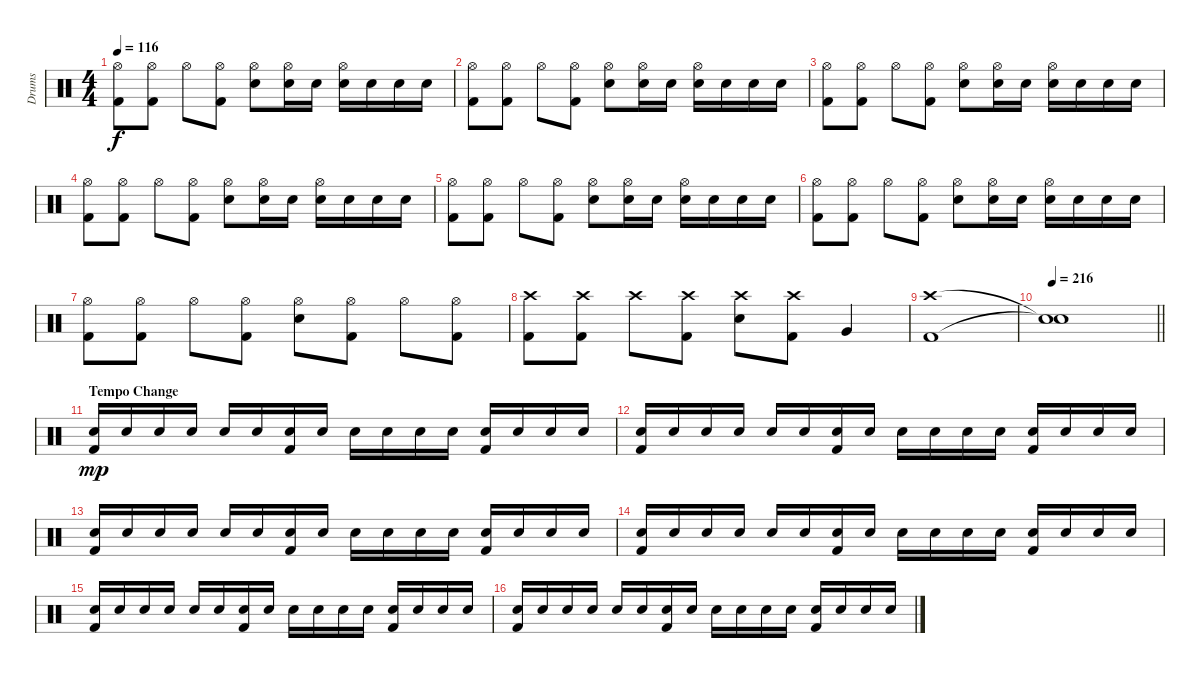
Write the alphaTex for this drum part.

\track ("Drums" "Drums") {instrument percussion}
\staff {score}
\articulation defaults
\ts (4 4)
\tempo 116
\clef neutral
\ks c
("Kick (hit) 2" "Hi-Hat (open)").8{dy f} ("Kick (hit) 2" "Hi-Hat (open)").8 "Hi-Hat (open)".8 ("Kick (hit) 2" "Hi-Hat (open)").8 ("Snare (hit) 2" "Hi-Hat (open)").8 ("Snare (hit) 2" "Hi-Hat (open)").16 "Snare (hit) 2".16 ("Snare (hit) 2" "Hi-Hat (open)").16 "Snare (hit) 2".16 "Snare (hit) 2".16 "Snare (hit) 2".16 |
("Kick (hit) 2" "Hi-Hat (open)").8 ("Kick (hit) 2" "Hi-Hat (open)").8 "Hi-Hat (open)".8 ("Kick (hit) 2" "Hi-Hat (open)").8 ("Snare (hit) 2" "Hi-Hat (open)").8 ("Snare (hit) 2" "Hi-Hat (open)").16 "Snare (hit) 2".16 ("Snare (hit) 2" "Hi-Hat (open)").16 "Snare (hit) 2".16 "Snare (hit) 2".16 "Snare (hit) 2".16 |
("Kick (hit) 2" "Hi-Hat (open)").8 ("Kick (hit) 2" "Hi-Hat (open)").8 "Hi-Hat (open)".8 ("Kick (hit) 2" "Hi-Hat (open)").8 ("Snare (hit) 2" "Hi-Hat (open)").8 ("Snare (hit) 2" "Hi-Hat (open)").16 "Snare (hit) 2".16 ("Snare (hit) 2" "Hi-Hat (open)").16 "Snare (hit) 2".16 "Snare (hit) 2".16 "Snare (hit) 2".16 |
("Kick (hit) 2" "Hi-Hat (open)").8 ("Kick (hit) 2" "Hi-Hat (open)").8 "Hi-Hat (open)".8 ("Kick (hit) 2" "Hi-Hat (open)").8 ("Snare (hit) 2" "Hi-Hat (open)").8 ("Snare (hit) 2" "Hi-Hat (open)").16 "Snare (hit) 2".16 ("Snare (hit) 2" "Hi-Hat (open)").16 "Snare (hit) 2".16 "Snare (hit) 2".16 "Snare (hit) 2".16 |
("Kick (hit) 2" "Hi-Hat (open)").8 ("Kick (hit) 2" "Hi-Hat (open)").8 "Hi-Hat (open)".8 ("Kick (hit) 2" "Hi-Hat (open)").8 ("Snare (hit) 2" "Hi-Hat (open)").8 ("Snare (hit) 2" "Hi-Hat (open)").16 "Snare (hit) 2".16 ("Snare (hit) 2" "Hi-Hat (open)").16 "Snare (hit) 2".16 "Snare (hit) 2".16 "Snare (hit) 2".16 |
("Kick (hit) 2" "Hi-Hat (open)").8 ("Kick (hit) 2" "Hi-Hat (open)").8 "Hi-Hat (open)".8 ("Kick (hit) 2" "Hi-Hat (open)").8 ("Snare (hit) 2" "Hi-Hat (open)").8 ("Snare (hit) 2" "Hi-Hat (open)").16 "Snare (hit) 2".16 ("Snare (hit) 2" "Hi-Hat (open)").16 "Snare (hit) 2".16 "Snare (hit) 2".16 "Snare (hit) 2".16 |
("Kick (hit) 2" "Hi-Hat (open)").8 ("Kick (hit) 2" "Hi-Hat (open)").8 "Hi-Hat (open)".8 ("Kick (hit) 2" "Hi-Hat (open)").8 ("Snare (hit) 2" "Hi-Hat (open)").8 ("Kick (hit) 2" "Hi-Hat (open)").8 "Hi-Hat (open)".8 ("Kick (hit) 2" "Hi-Hat (open)").8 |
("Kick (hit) 2" "Crash high (hit)").8 ("Kick (hit) 2" "Crash high (hit)").8 "Crash high (hit)".8 ("Kick (hit) 2" "Crash high (hit)").8 ("Electric Snare (hit)" "Crash high (hit)").8 ("Kick (hit) 2" "Crash high (hit)").8 "Very Low Tom (hit)".4 |
("Kick (hit) 2" "Crash high (hit)").1 |
\tempo 216
\barLineRight lightlight
("Snare (hit)"{t} "Snare (hit)"{t}).1 |
\section ("" "Tempo Change")
("Kick (hit) 2" "Snare (hit) 2").16{dy mp} "Snare (hit) 2".16 "Snare (hit) 2".16 "Snare (hit) 2".16 "Snare (hit) 2".16 "Snare (hit) 2".16 ("Kick (hit) 2" "Snare (hit) 2").16 "Snare (hit) 2".16 "Snare (hit) 2".16 "Snare (hit) 2".16 "Snare (hit) 2".16 "Snare (hit) 2".16 ("Kick (hit) 2" "Snare (hit) 2").16 "Snare (hit) 2".16 "Snare (hit) 2".16 "Snare (hit) 2".16 |
("Kick (hit) 2" "Snare (hit) 2").16 "Snare (hit) 2".16 "Snare (hit) 2".16 "Snare (hit) 2".16 "Snare (hit) 2".16 "Snare (hit) 2".16 ("Kick (hit) 2" "Snare (hit) 2").16 "Snare (hit) 2".16 "Snare (hit) 2".16 "Snare (hit) 2".16 "Snare (hit) 2".16 "Snare (hit) 2".16 ("Kick (hit) 2" "Snare (hit) 2").16 "Snare (hit) 2".16 "Snare (hit) 2".16 "Snare (hit) 2".16 |
("Kick (hit) 2" "Snare (hit) 2").16 "Snare (hit) 2".16 "Snare (hit) 2".16 "Snare (hit) 2".16 "Snare (hit) 2".16 "Snare (hit) 2".16 ("Kick (hit) 2" "Snare (hit) 2").16 "Snare (hit) 2".16 "Snare (hit) 2".16 "Snare (hit) 2".16 "Snare (hit) 2".16 "Snare (hit) 2".16 ("Kick (hit) 2" "Snare (hit) 2").16 "Snare (hit) 2".16 "Snare (hit) 2".16 "Snare (hit) 2".16 |
("Kick (hit) 2" "Snare (hit) 2").16 "Snare (hit) 2".16 "Snare (hit) 2".16 "Snare (hit) 2".16 "Snare (hit) 2".16 "Snare (hit) 2".16 ("Kick (hit) 2" "Snare (hit) 2").16 "Snare (hit) 2".16 "Snare (hit) 2".16 "Snare (hit) 2".16 "Snare (hit) 2".16 "Snare (hit) 2".16 ("Kick (hit) 2" "Snare (hit) 2").16 "Snare (hit) 2".16 "Snare (hit) 2".16 "Snare (hit) 2".16 |
("Kick (hit) 2" "Snare (hit) 2").16 "Snare (hit) 2".16 "Snare (hit) 2".16 "Snare (hit) 2".16 "Snare (hit) 2".16 "Snare (hit) 2".16 ("Kick (hit) 2" "Snare (hit) 2").16 "Snare (hit) 2".16 "Snare (hit) 2".16 "Snare (hit) 2".16 "Snare (hit) 2".16 "Snare (hit) 2".16 ("Kick (hit) 2" "Snare (hit) 2").16 "Snare (hit) 2".16 "Snare (hit) 2".16 "Snare (hit) 2".16 |
("Kick (hit) 2" "Snare (hit) 2").16 "Snare (hit) 2".16 "Snare (hit) 2".16 "Snare (hit) 2".16 "Snare (hit) 2".16 "Snare (hit) 2".16 ("Kick (hit) 2" "Snare (hit) 2").16 "Snare (hit) 2".16 "Snare (hit) 2".16 "Snare (hit) 2".16 "Snare (hit) 2".16 "Snare (hit) 2".16 ("Kick (hit) 2" "Snare (hit) 2").16 "Snare (hit) 2".16 "Snare (hit) 2".16 "Snare (hit) 2".16
